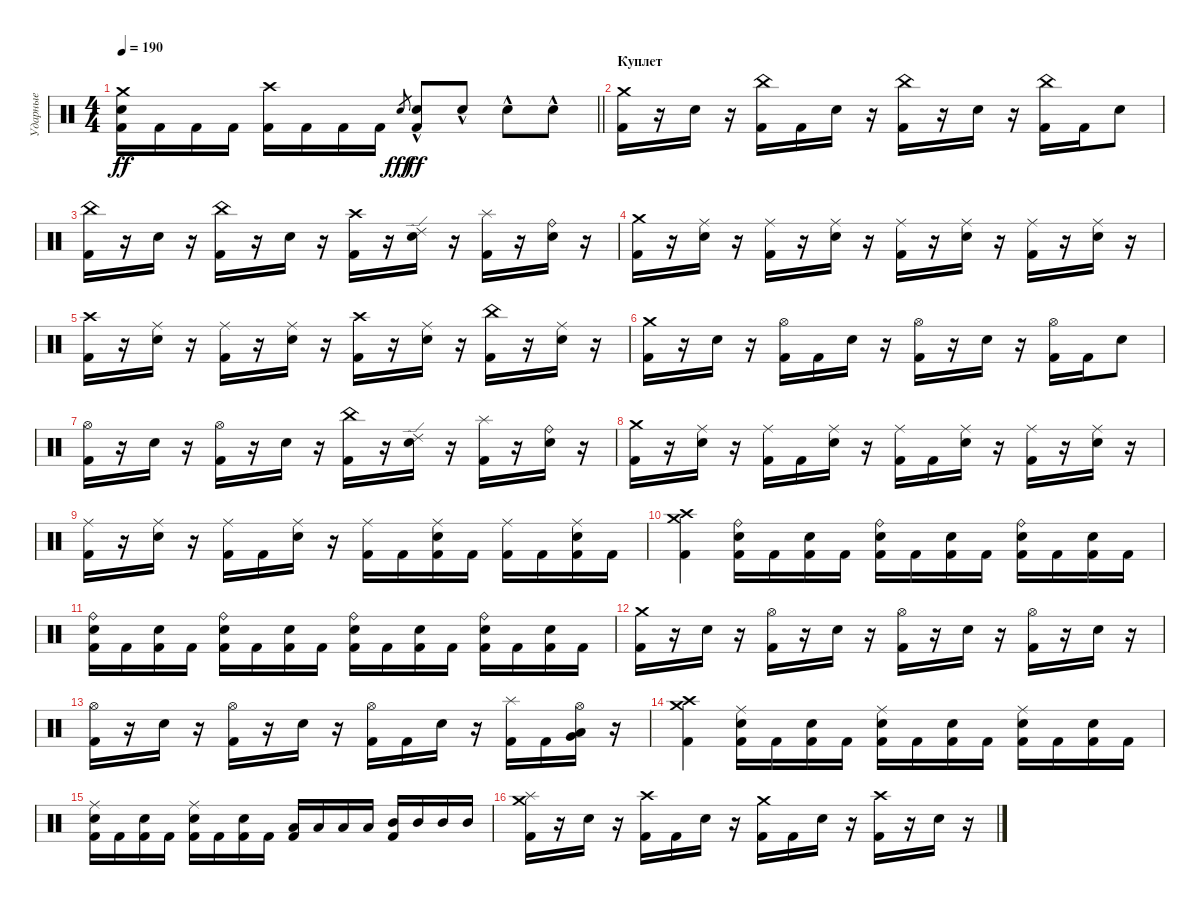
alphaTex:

\track ("Ударные" "Ударные") {instrument percussion}
\staff {score}
\articulation defaults
\ts (4 4)
\tempo 190
\clef neutral
\barLineRight lightlight
\ks c
("Crash medium (hit)" "Electric Snare (hit)" "Kick (hit) 2").16{dy ff} "Kick (hit) 2".16 "Kick (hit) 2".16 "Kick (hit) 2".16 ("Crash high (hit)" "Kick (hit) 2").16 "Kick (hit) 2".16 "Kick (hit) 2".16 "Kick (hit) 2".16 "Electric Snare (hit)".8{gr dy fff} ("Electric Snare (hit)"{hac} "Kick (hit) 2").8{dy ff} "Electric Snare (hit)"{hac}.8 "Electric Snare (hit)"{hac}.8 "Electric Snare (hit)"{hac}.8 |
\section ("" "Куплет")
("Crash medium (hit)" "Kick (hit) 2").16 r.16 "Electric Snare (hit)".16 r.16 ("China (hit)" "Kick (hit) 2").16 "Kick (hit) 2".16 "Electric Snare (hit)".16 r.16 ("China (hit)" "Kick (hit) 2").16 r.16 "Electric Snare (hit)".16 r.16 ("China (hit)" "Kick (hit) 2").16 "Kick (hit) 2".16 "Electric Snare (hit)".8 |
("China (hit)" "Kick (hit) 2").16 r.16 "Electric Snare (hit)".16 r.16 ("China (hit)" "Kick (hit) 2").16 r.16 "Electric Snare (hit)".16 r.16 ("Crash high (hit)" "Kick (hit) 2").16 r.16 ("Ride (edge) 2" "Electric Snare (hit)").16 r.16 ("Splash (hit)" "Kick (hit) 2").16 r.16 ("Ride (bell)" "Electric Snare (hit)").16 r.16 |
("Crash medium (hit)" "Kick (hit) 2").16 r.16 ("Ride (middle)" "Electric Snare (hit)").16 r.16 ("Ride (middle)" "Kick (hit) 2").16 r.16 ("Ride (middle)" "Electric Snare (hit)").16 r.16 ("Ride (middle)" "Kick (hit) 2").16 r.16 ("Ride (middle)" "Electric Snare (hit)").16 r.16 ("Ride (middle)" "Kick (hit) 2").16 r.16 ("Ride (middle)" "Electric Snare (hit)").16 r.16 |
("Crash high (hit)" "Kick (hit) 2").16 r.16 ("Ride (middle)" "Electric Snare (hit)").16 r.16 ("Ride (middle)" "Kick (hit) 2").16 r.16 ("Ride (middle)" "Electric Snare (hit)").16 r.16 ("Crash high (hit)" "Kick (hit) 2").16 r.16 ("Ride (middle)" "Electric Snare (hit)").16 r.16 ("China (hit)" "Kick (hit) 2").16 r.16 ("Ride (middle)" "Electric Snare (hit)").16 r.16 |
("Crash medium (hit)" "Kick (hit) 2").16 r.16 "Electric Snare (hit)".16 r.16 ("Hi-Hat (open)" "Kick (hit) 2").16 "Kick (hit) 2".16 "Electric Snare (hit)".16 r.16 ("Hi-Hat (open)" "Kick (hit) 2").16 r.16 "Electric Snare (hit)".16 r.16 ("Hi-Hat (open)" "Kick (hit) 2").16 "Kick (hit) 2".16 "Electric Snare (hit)".8 |
("Hi-Hat (open)" "Kick (hit) 2").16 r.16 "Electric Snare (hit)".16 r.16 ("Hi-Hat (open)" "Kick (hit) 2").16 r.16 "Electric Snare (hit)".16 r.16 ("China (hit)" "Kick (hit) 2").16 r.16 ("Ride (edge) 2" "Electric Snare (hit)").16 r.16 ("Splash (hit)" "Kick (hit) 2").16 r.16 ("Ride (bell)" "Electric Snare (hit)").16 r.16 |
("Crash medium (hit)" "Kick (hit) 2").16 r.16 ("Ride (middle)" "Electric Snare (hit)").16 r.16 ("Ride (middle)" "Kick (hit) 2").16 "Kick (hit) 2".16 ("Ride (middle)" "Electric Snare (hit)").16 r.16 ("Ride (middle)" "Kick (hit) 2").16 "Kick (hit) 2".16 ("Ride (middle)" "Electric Snare (hit)").16 r.16 ("Ride (middle)" "Kick (hit) 2").16 r.16 ("Ride (middle)" "Electric Snare (hit)").16 r.16 |
("Ride (middle)" "Kick (hit) 2").16 r.16 ("Ride (middle)" "Electric Snare (hit)").16 r.16 ("Ride (middle)" "Kick (hit) 2").16 "Kick (hit) 2".16 ("Ride (middle)" "Electric Snare (hit)").16 r.16 ("Ride (middle)" "Kick (hit) 2").16 "Kick (hit) 2".16 ("Ride (middle)" "Electric Snare (hit)" "Kick (hit) 2").16 "Kick (hit) 2".16 ("Ride (middle)" "Kick (hit) 2").16 "Kick (hit) 2".16 ("Ride (middle)" "Electric Snare (hit)" "Kick (hit) 2").16 "Kick (hit) 2".16 |
("Crash medium (hit)" "Crash high (hit)" "Kick (hit) 2").4 ("Ride (bell)" "Electric Snare (hit)" "Kick (hit) 2").16 "Kick (hit) 2".16 ("Electric Snare (hit)" "Kick (hit) 2").16 "Kick (hit) 2".16 ("Ride (bell)" "Electric Snare (hit)" "Kick (hit) 2").16 "Kick (hit) 2".16 ("Electric Snare (hit)" "Kick (hit) 2").16 "Kick (hit) 2".16 ("Ride (bell)" "Electric Snare (hit)" "Kick (hit) 2").16 "Kick (hit) 2".16 ("Electric Snare (hit)" "Kick (hit) 2").16 "Kick (hit) 2".16 |
("Ride (bell)" "Electric Snare (hit)" "Kick (hit) 2").16 "Kick (hit) 2".16 ("Electric Snare (hit)" "Kick (hit) 2").16 "Kick (hit) 2".16 ("Ride (bell)" "Electric Snare (hit)" "Kick (hit) 2").16 "Kick (hit) 2".16 ("Electric Snare (hit)" "Kick (hit) 2").16 "Kick (hit) 2".16 ("Ride (bell)" "Electric Snare (hit)" "Kick (hit) 2").16 "Kick (hit) 2".16 ("Electric Snare (hit)" "Kick (hit) 2").16 "Kick (hit) 2".16 ("Ride (bell)" "Electric Snare (hit)" "Kick (hit) 2").16 "Kick (hit) 2".16 ("Electric Snare (hit)" "Kick (hit) 2").16 "Kick (hit) 2".16 |
("Crash medium (hit)" "Kick (hit) 2").16 r.16 "Electric Snare (hit)".16 r.16 ("Hi-Hat (open)" "Kick (hit) 2").16 r.16 "Electric Snare (hit)".16 r.16 ("Hi-Hat (open)" "Kick (hit) 2").16 r.16 "Electric Snare (hit)".16 r.16 ("Hi-Hat (open)" "Kick (hit) 2").16 r.16 "Electric Snare (hit)".16 r.16 |
("Hi-Hat (open)" "Kick (hit) 2").16 r.16 "Electric Snare (hit)".16 r.16 ("Hi-Hat (open)" "Kick (hit) 2").16 r.16 "Electric Snare (hit)".16 r.16 ("Hi-Hat (open)" "Kick (hit) 2").16 "Kick (hit) 2".16 "Electric Snare (hit)".16 r.16 ("Splash (hit)" "Kick (hit) 2").16 "Kick (hit) 2".16 ("Hi-Hat (open)" "Very Low Tom (hit)" "Low Tom (hit)").16 r.16 |
("Crash medium (hit)" "Crash high (hit)" "Kick (hit) 2").4 ("Ride (middle)" "Electric Snare (hit)" "Kick (hit) 2").16 "Kick (hit) 2".16 ("Electric Snare (hit)" "Kick (hit) 2").16 "Kick (hit) 2".16 ("Ride (middle)" "Electric Snare (hit)" "Kick (hit) 2").16 "Kick (hit) 2".16 ("Electric Snare (hit)" "Kick (hit) 2").16 "Kick (hit) 2".16 ("Ride (middle)" "Electric Snare (hit)" "Kick (hit) 2").16 "Kick (hit) 2".16 ("Electric Snare (hit)" "Kick (hit) 2").16 "Kick (hit) 2".16 |
("Ride (middle)" "Electric Snare (hit)" "Kick (hit) 2").16 "Kick (hit) 2".16 ("Electric Snare (hit)" "Kick (hit) 2").16 "Kick (hit) 2".16 ("Ride (middle)" "Electric Snare (hit)" "Kick (hit) 2").16 "Kick (hit) 2".16 ("Electric Snare (hit)" "Kick (hit) 2").16 "Kick (hit) 2".16 ("Low Tom (hit)" "Kick (hit) 2").16 "Low Tom (hit)".16 "Low Tom (hit)".16 "Low Tom (hit)".16 ("Mid Tom (hit)" "Kick (hit) 2").16 "Mid Tom (hit)".16 "Mid Tom (hit)".16 "Mid Tom (hit)".16 |
("Crash medium (hit)" "Splash (hit)" "Kick (hit) 2").16 r.16 "Electric Snare (hit)".16 r.16 ("Crash high (hit)" "Kick (hit) 2").16 "Kick (hit) 2".16 "Electric Snare (hit)".16 r.16 ("Crash medium (hit)" "Kick (hit) 2").16 "Kick (hit) 2".16 "Electric Snare (hit)".16 r.16 ("Crash high (hit)" "Kick (hit) 2").16 r.16 "Electric Snare (hit)".16 r.16
